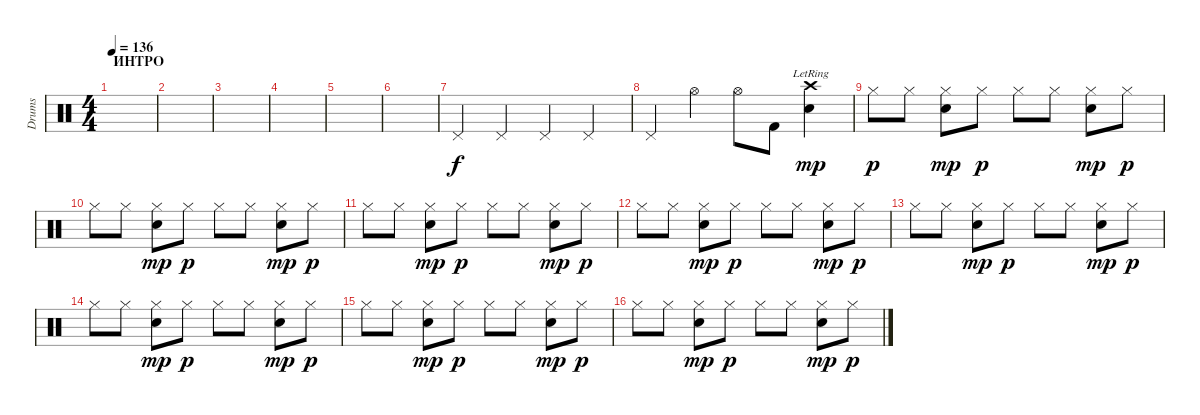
\track ("Drums" "Drums") {instrument percussion}
\staff {score}
\articulation defaults
\ts (4 4)
\section ("" "ИНТРО")
\tempo 136
\clef neutral
\ks c
|
|
|
|
|
|
"Pedal Hi-Hat (hit)".4 "Pedal Hi-Hat (hit)".4 "Pedal Hi-Hat (hit)".4 "Pedal Hi-Hat (hit)".4 |
"Pedal Hi-Hat (hit)".4 "Hi-Hat (open)".4 "Hi-Hat (open)".8 "Kick (hit) 2".8{dy f} ("Crash high (hit)"{lr} "Electric Snare (hit)").4{dy mp} |
"Hi-Hat (closed)".8{dy p} "Hi-Hat (closed)".8 ("Hi-Hat (closed)" "Electric Snare (hit)").8{dy mp} "Hi-Hat (closed)".8{dy p} "Hi-Hat (closed)".8 "Hi-Hat (closed)".8 ("Hi-Hat (closed)" "Electric Snare (hit)").8{dy mp} "Hi-Hat (closed)".8{dy p} |
"Hi-Hat (closed)".8 "Hi-Hat (closed)".8 ("Hi-Hat (closed)" "Electric Snare (hit)").8{dy mp} "Hi-Hat (closed)".8{dy p} "Hi-Hat (closed)".8 "Hi-Hat (closed)".8 ("Hi-Hat (closed)" "Electric Snare (hit)").8{dy mp} "Hi-Hat (closed)".8{dy p} |
"Hi-Hat (closed)".8 "Hi-Hat (closed)".8 ("Hi-Hat (closed)" "Electric Snare (hit)").8{dy mp} "Hi-Hat (closed)".8{dy p} "Hi-Hat (closed)".8 "Hi-Hat (closed)".8 ("Hi-Hat (closed)" "Electric Snare (hit)").8{dy mp} "Hi-Hat (closed)".8{dy p} |
"Hi-Hat (closed)".8 "Hi-Hat (closed)".8 ("Hi-Hat (closed)" "Electric Snare (hit)").8{dy mp} "Hi-Hat (closed)".8{dy p} "Hi-Hat (closed)".8 "Hi-Hat (closed)".8 ("Hi-Hat (closed)" "Electric Snare (hit)").8{dy mp} "Hi-Hat (closed)".8{dy p} |
"Hi-Hat (closed)".8 "Hi-Hat (closed)".8 ("Hi-Hat (closed)" "Electric Snare (hit)").8{dy mp} "Hi-Hat (closed)".8{dy p} "Hi-Hat (closed)".8 "Hi-Hat (closed)".8 ("Hi-Hat (closed)" "Electric Snare (hit)").8{dy mp} "Hi-Hat (closed)".8{dy p} |
"Hi-Hat (closed)".8 "Hi-Hat (closed)".8 ("Hi-Hat (closed)" "Electric Snare (hit)").8{dy mp} "Hi-Hat (closed)".8{dy p} "Hi-Hat (closed)".8 "Hi-Hat (closed)".8 ("Hi-Hat (closed)" "Electric Snare (hit)").8{dy mp} "Hi-Hat (closed)".8{dy p} |
"Hi-Hat (closed)".8 "Hi-Hat (closed)".8 ("Hi-Hat (closed)" "Electric Snare (hit)").8{dy mp} "Hi-Hat (closed)".8{dy p} "Hi-Hat (closed)".8 "Hi-Hat (closed)".8 ("Hi-Hat (closed)" "Electric Snare (hit)").8{dy mp} "Hi-Hat (closed)".8{dy p} |
"Hi-Hat (closed)".8 "Hi-Hat (closed)".8 ("Hi-Hat (closed)" "Electric Snare (hit)").8{dy mp} "Hi-Hat (closed)".8{dy p} "Hi-Hat (closed)".8 "Hi-Hat (closed)".8 ("Hi-Hat (closed)" "Electric Snare (hit)").8{dy mp} "Hi-Hat (closed)".8{dy p}
